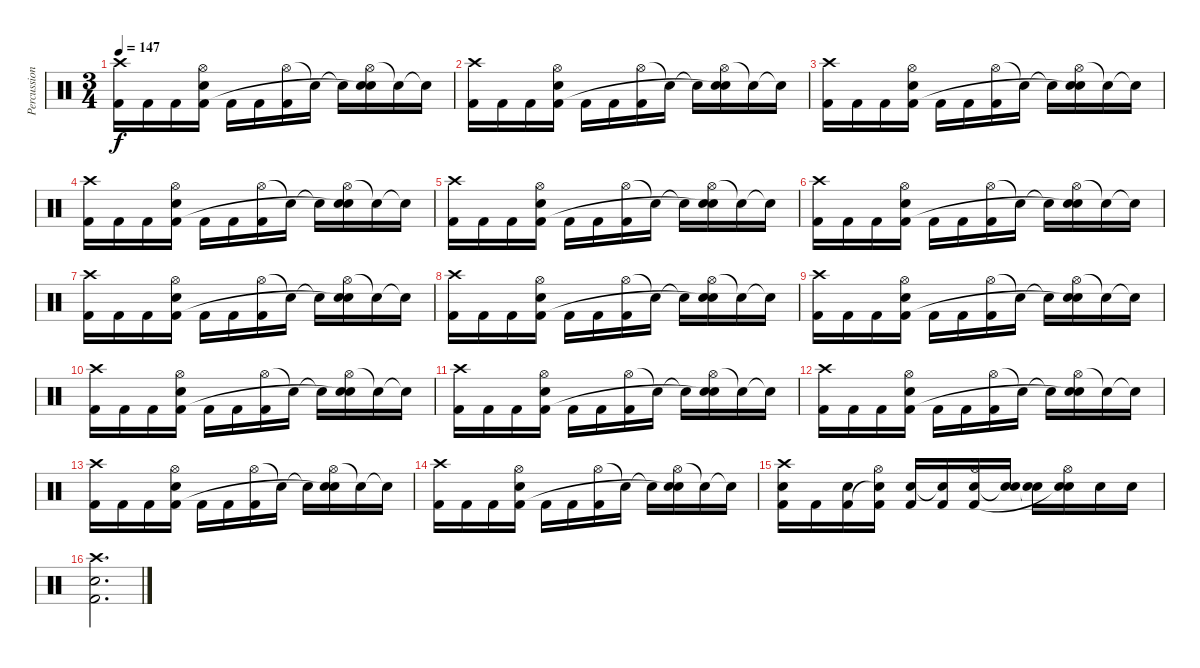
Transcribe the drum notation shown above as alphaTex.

\track ("Percussion" "Percussion") {instrument percussion}
\staff {score}
\articulation defaults
\ts (3 4)
\tempo 147
\clef neutral
\ks c
("Crash high (hit)" "Kick (hit) 2").16{dy f} "Kick (hit) 2".16 "Kick (hit) 2".16 ("Hi-Hat (open)" "Electric Snare (hit)" "Kick (hit) 2").16 "Kick (hit) 2".16 "Kick (hit) 2".16 ("Hi-Hat (open)" "Kick (hit) 2").16 "Snare (hit)"{t}.16 "Snare (hit)"{t}.16 ("Hi-Hat (open)" "Electric Snare (hit)" "Snare (hit)"{t}).16 "Electric Snare (hit)"{t}.16 "Snare (hit)"{t}.16 |
("Crash high (hit)" "Kick (hit) 2").16 "Kick (hit) 2".16 "Kick (hit) 2".16 ("Hi-Hat (open)" "Electric Snare (hit)" "Kick (hit) 2").16 "Kick (hit) 2".16 "Kick (hit) 2".16 ("Hi-Hat (open)" "Kick (hit) 2").16 "Snare (hit)"{t}.16 "Snare (hit)"{t}.16 ("Hi-Hat (open)" "Electric Snare (hit)" "Snare (hit)"{t}).16 "Electric Snare (hit)"{t}.16 "Snare (hit)"{t}.16 |
("Crash high (hit)" "Kick (hit) 2").16 "Kick (hit) 2".16 "Kick (hit) 2".16 ("Hi-Hat (open)" "Electric Snare (hit)" "Kick (hit) 2").16 "Kick (hit) 2".16 "Kick (hit) 2".16 ("Hi-Hat (open)" "Kick (hit) 2").16 "Snare (hit)"{t}.16 "Snare (hit)"{t}.16 ("Hi-Hat (open)" "Electric Snare (hit)" "Snare (hit)"{t}).16 "Electric Snare (hit)"{t}.16 "Snare (hit)"{t}.16 |
("Crash high (hit)" "Kick (hit) 2").16 "Kick (hit) 2".16 "Kick (hit) 2".16 ("Hi-Hat (open)" "Electric Snare (hit)" "Kick (hit) 2").16 "Kick (hit) 2".16 "Kick (hit) 2".16 ("Hi-Hat (open)" "Kick (hit) 2").16 "Snare (hit)"{t}.16 "Snare (hit)"{t}.16 ("Hi-Hat (open)" "Electric Snare (hit)" "Snare (hit)"{t}).16 "Electric Snare (hit)"{t}.16 "Snare (hit)"{t}.16 |
("Crash high (hit)" "Kick (hit) 2").16 "Kick (hit) 2".16 "Kick (hit) 2".16 ("Hi-Hat (open)" "Electric Snare (hit)" "Kick (hit) 2").16 "Kick (hit) 2".16 "Kick (hit) 2".16 ("Hi-Hat (open)" "Kick (hit) 2").16 "Snare (hit)"{t}.16 "Snare (hit)"{t}.16 ("Hi-Hat (open)" "Electric Snare (hit)" "Snare (hit)"{t}).16 "Electric Snare (hit)"{t}.16 "Snare (hit)"{t}.16 |
("Crash high (hit)" "Kick (hit) 2").16 "Kick (hit) 2".16 "Kick (hit) 2".16 ("Hi-Hat (open)" "Electric Snare (hit)" "Kick (hit) 2").16 "Kick (hit) 2".16 "Kick (hit) 2".16 ("Hi-Hat (open)" "Kick (hit) 2").16 "Snare (hit)"{t}.16 "Snare (hit)"{t}.16 ("Hi-Hat (open)" "Electric Snare (hit)" "Snare (hit)"{t}).16 "Electric Snare (hit)"{t}.16 "Snare (hit)"{t}.16 |
("Crash high (hit)" "Kick (hit) 2").16 "Kick (hit) 2".16 "Kick (hit) 2".16 ("Hi-Hat (open)" "Electric Snare (hit)" "Kick (hit) 2").16 "Kick (hit) 2".16 "Kick (hit) 2".16 ("Hi-Hat (open)" "Kick (hit) 2").16 "Snare (hit)"{t}.16 "Snare (hit)"{t}.16 ("Hi-Hat (open)" "Electric Snare (hit)" "Snare (hit)"{t}).16 "Electric Snare (hit)"{t}.16 "Snare (hit)"{t}.16 |
("Crash high (hit)" "Kick (hit) 2").16 "Kick (hit) 2".16 "Kick (hit) 2".16 ("Hi-Hat (open)" "Electric Snare (hit)" "Kick (hit) 2").16 "Kick (hit) 2".16 "Kick (hit) 2".16 ("Hi-Hat (open)" "Kick (hit) 2").16 "Snare (hit)"{t}.16 "Snare (hit)"{t}.16 ("Hi-Hat (open)" "Electric Snare (hit)" "Snare (hit)"{t}).16 "Electric Snare (hit)"{t}.16 "Snare (hit)"{t}.16 |
("Crash high (hit)" "Kick (hit) 2").16 "Kick (hit) 2".16 "Kick (hit) 2".16 ("Hi-Hat (open)" "Electric Snare (hit)" "Kick (hit) 2").16 "Kick (hit) 2".16 "Kick (hit) 2".16 ("Hi-Hat (open)" "Kick (hit) 2").16 "Snare (hit)"{t}.16 "Snare (hit)"{t}.16 ("Hi-Hat (open)" "Electric Snare (hit)" "Snare (hit)"{t}).16 "Electric Snare (hit)"{t}.16 "Snare (hit)"{t}.16 |
("Crash high (hit)" "Kick (hit) 2").16 "Kick (hit) 2".16 "Kick (hit) 2".16 ("Hi-Hat (open)" "Electric Snare (hit)" "Kick (hit) 2").16 "Kick (hit) 2".16 "Kick (hit) 2".16 ("Hi-Hat (open)" "Kick (hit) 2").16 "Snare (hit)"{t}.16 "Snare (hit)"{t}.16 ("Hi-Hat (open)" "Electric Snare (hit)" "Snare (hit)"{t}).16 "Electric Snare (hit)"{t}.16 "Snare (hit)"{t}.16 |
("Crash high (hit)" "Kick (hit) 2").16 "Kick (hit) 2".16 "Kick (hit) 2".16 ("Hi-Hat (open)" "Electric Snare (hit)" "Kick (hit) 2").16 "Kick (hit) 2".16 "Kick (hit) 2".16 ("Hi-Hat (open)" "Kick (hit) 2").16 "Snare (hit)"{t}.16 "Snare (hit)"{t}.16 ("Hi-Hat (open)" "Electric Snare (hit)" "Snare (hit)"{t}).16 "Electric Snare (hit)"{t}.16 "Snare (hit)"{t}.16 |
("Crash high (hit)" "Kick (hit) 2").16 "Kick (hit) 2".16 "Kick (hit) 2".16 ("Hi-Hat (open)" "Electric Snare (hit)" "Kick (hit) 2").16 "Kick (hit) 2".16 "Kick (hit) 2".16 ("Hi-Hat (open)" "Kick (hit) 2").16 "Snare (hit)"{t}.16 "Snare (hit)"{t}.16 ("Hi-Hat (open)" "Electric Snare (hit)" "Snare (hit)"{t}).16 "Electric Snare (hit)"{t}.16 "Snare (hit)"{t}.16 |
("Crash high (hit)" "Kick (hit) 2").16 "Kick (hit) 2".16 "Kick (hit) 2".16 ("Hi-Hat (open)" "Electric Snare (hit)" "Kick (hit) 2").16 "Kick (hit) 2".16 "Kick (hit) 2".16 ("Hi-Hat (open)" "Kick (hit) 2").16 "Snare (hit)"{t}.16 "Snare (hit)"{t}.16 ("Hi-Hat (open)" "Electric Snare (hit)" "Snare (hit)"{t}).16 "Electric Snare (hit)"{t}.16 "Snare (hit)"{t}.16 |
("Crash high (hit)" "Kick (hit) 2").16 "Kick (hit) 2".16 "Kick (hit) 2".16 ("Hi-Hat (open)" "Electric Snare (hit)" "Kick (hit) 2").16 "Kick (hit) 2".16 "Kick (hit) 2".16 ("Hi-Hat (open)" "Kick (hit) 2").16 "Snare (hit)"{t}.16 "Snare (hit)"{t}.16 ("Hi-Hat (open)" "Electric Snare (hit)" "Snare (hit)"{t}).16 "Electric Snare (hit)"{t}.16 "Snare (hit)"{t}.16 |
("Crash high (hit)" "Electric Snare (hit)" "Kick (hit) 2").16 "Kick (hit) 2".16 ("Electric Snare (hit)" "Kick (hit) 2").16 ("Hi-Hat (open)" "Electric Snare (hit)"{t} "Kick (hit) 2").16 ("Electric Snare (hit)" "Kick (hit) 2").16 ("Electric Snare (hit)"{t} "Kick (hit) 2").16 ("Hi-Hat (open)" "Electric Snare (hit)" "Kick (hit) 2").16 ("Electric Snare (hit)" "Snare (hit)"{t}).16 ("Electric Snare (hit)" "Snare (hit)"{t}).16 ("Hi-Hat (open)" "Electric Snare (hit)" "Snare (hit)"{t}).16 "Electric Snare (hit)".16 "Electric Snare (hit)".16 |
("Crash high (hit)" "Electric Snare (hit)" "Kick (hit) 2").2{d}
